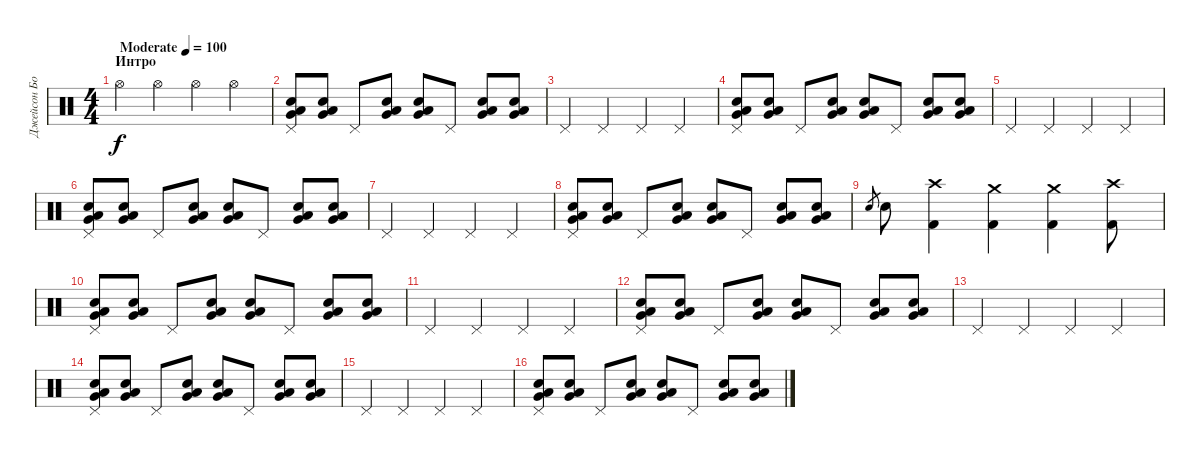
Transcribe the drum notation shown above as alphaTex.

\track ("Джейсон Бонэм" "Джейсон Бо") {instrument percussion}
\staff {score}
\articulation defaults
\ts (4 4)
\section ("" "Интро")
\tempo (100 "Moderate")
\clef neutral
\ks c "Hi-Hat (open)".4{dy f} "Hi-Hat (open)".4 "Hi-Hat (open)".4 "Hi-Hat (open)".4
|
("Very Low Tom (hit)" "Low Floor Tom (hit)" "Snare (hit) 2" "Pedal Hi-Hat (hit)").8 ("Very Low Tom (hit)" "Low Floor Tom (hit)" "Snare (hit) 2").8 "Pedal Hi-Hat (hit)".8 ("Very Low Tom (hit)" "Low Floor Tom (hit)" "Snare (hit) 2").8 ("Very Low Tom (hit)" "Low Floor Tom (hit)" "Snare (hit) 2").8 "Pedal Hi-Hat (hit)".8 ("Very Low Tom (hit)" "Low Floor Tom (hit)" "Snare (hit) 2").8 ("Very Low Tom (hit)" "Low Floor Tom (hit)" "Snare (hit) 2").8 |
"Pedal Hi-Hat (hit)".4 "Pedal Hi-Hat (hit)".4 "Pedal Hi-Hat (hit)".4 "Pedal Hi-Hat (hit)".4 |
("Very Low Tom (hit)" "Low Floor Tom (hit)" "Snare (hit) 2" "Pedal Hi-Hat (hit)").8 ("Very Low Tom (hit)" "Low Floor Tom (hit)" "Snare (hit) 2").8 "Pedal Hi-Hat (hit)".8 ("Very Low Tom (hit)" "Low Floor Tom (hit)" "Snare (hit) 2").8 ("Very Low Tom (hit)" "Low Floor Tom (hit)" "Snare (hit) 2").8 "Pedal Hi-Hat (hit)".8 ("Very Low Tom (hit)" "Low Floor Tom (hit)" "Snare (hit) 2").8 ("Very Low Tom (hit)" "Low Floor Tom (hit)" "Snare (hit) 2").8 |
"Pedal Hi-Hat (hit)".4 "Pedal Hi-Hat (hit)".4 "Pedal Hi-Hat (hit)".4 "Pedal Hi-Hat (hit)".4 |
("Very Low Tom (hit)" "Low Floor Tom (hit)" "Snare (hit) 2" "Pedal Hi-Hat (hit)").8 ("Very Low Tom (hit)" "Low Floor Tom (hit)" "Snare (hit) 2").8 "Pedal Hi-Hat (hit)".8 ("Very Low Tom (hit)" "Low Floor Tom (hit)" "Snare (hit) 2").8 ("Very Low Tom (hit)" "Low Floor Tom (hit)" "Snare (hit) 2").8 "Pedal Hi-Hat (hit)".8 ("Very Low Tom (hit)" "Low Floor Tom (hit)" "Snare (hit) 2").8 ("Very Low Tom (hit)" "Low Floor Tom (hit)" "Snare (hit) 2").8 |
"Pedal Hi-Hat (hit)".4 "Pedal Hi-Hat (hit)".4 "Pedal Hi-Hat (hit)".4 "Pedal Hi-Hat (hit)".4 |
("Very Low Tom (hit)" "Low Floor Tom (hit)" "Snare (hit) 2" "Pedal Hi-Hat (hit)").8 ("Very Low Tom (hit)" "Low Floor Tom (hit)" "Snare (hit) 2").8 "Pedal Hi-Hat (hit)".8 ("Very Low Tom (hit)" "Low Floor Tom (hit)" "Snare (hit) 2").8 ("Very Low Tom (hit)" "Low Floor Tom (hit)" "Snare (hit) 2").8 "Pedal Hi-Hat (hit)".8 ("Very Low Tom (hit)" "Low Floor Tom (hit)" "Snare (hit) 2").8 ("Very Low Tom (hit)" "Low Floor Tom (hit)" "Snare (hit) 2").8 |
"Snare (hit) 2".8{gr} "Snare (hit) 2".8 ("Crash high (hit)" "Kick (hit) 2").4 ("Crash medium (hit)" "Kick (hit) 2").4 ("Crash medium (hit)" "Kick (hit) 2").4 ("Crash high (hit)" "Kick (hit) 2").8 |
("Very Low Tom (hit)" "Low Floor Tom (hit)" "Snare (hit) 2" "Pedal Hi-Hat (hit)").8 ("Very Low Tom (hit)" "Low Floor Tom (hit)" "Snare (hit) 2").8 "Pedal Hi-Hat (hit)".8 ("Very Low Tom (hit)" "Low Floor Tom (hit)" "Snare (hit) 2").8 ("Very Low Tom (hit)" "Low Floor Tom (hit)" "Snare (hit) 2").8 "Pedal Hi-Hat (hit)".8 ("Very Low Tom (hit)" "Low Floor Tom (hit)" "Snare (hit) 2").8 ("Very Low Tom (hit)" "Low Floor Tom (hit)" "Snare (hit) 2").8 |
"Pedal Hi-Hat (hit)".4 "Pedal Hi-Hat (hit)".4 "Pedal Hi-Hat (hit)".4 "Pedal Hi-Hat (hit)".4 |
("Very Low Tom (hit)" "Low Floor Tom (hit)" "Snare (hit) 2" "Pedal Hi-Hat (hit)").8 ("Very Low Tom (hit)" "Low Floor Tom (hit)" "Snare (hit) 2").8 "Pedal Hi-Hat (hit)".8 ("Very Low Tom (hit)" "Low Floor Tom (hit)" "Snare (hit) 2").8 ("Very Low Tom (hit)" "Low Floor Tom (hit)" "Snare (hit) 2").8 "Pedal Hi-Hat (hit)".8 ("Very Low Tom (hit)" "Low Floor Tom (hit)" "Snare (hit) 2").8 ("Very Low Tom (hit)" "Low Floor Tom (hit)" "Snare (hit) 2").8 |
"Pedal Hi-Hat (hit)".4 "Pedal Hi-Hat (hit)".4 "Pedal Hi-Hat (hit)".4 "Pedal Hi-Hat (hit)".4 |
("Very Low Tom (hit)" "Low Floor Tom (hit)" "Snare (hit) 2" "Pedal Hi-Hat (hit)").8 ("Very Low Tom (hit)" "Low Floor Tom (hit)" "Snare (hit) 2").8 "Pedal Hi-Hat (hit)".8 ("Very Low Tom (hit)" "Low Floor Tom (hit)" "Snare (hit) 2").8 ("Very Low Tom (hit)" "Low Floor Tom (hit)" "Snare (hit) 2").8 "Pedal Hi-Hat (hit)".8 ("Very Low Tom (hit)" "Low Floor Tom (hit)" "Snare (hit) 2").8 ("Very Low Tom (hit)" "Low Floor Tom (hit)" "Snare (hit) 2").8 |
"Pedal Hi-Hat (hit)".4 "Pedal Hi-Hat (hit)".4 "Pedal Hi-Hat (hit)".4 "Pedal Hi-Hat (hit)".4 |
("Very Low Tom (hit)" "Low Floor Tom (hit)" "Snare (hit) 2" "Pedal Hi-Hat (hit)").8 ("Very Low Tom (hit)" "Low Floor Tom (hit)" "Snare (hit) 2").8 "Pedal Hi-Hat (hit)".8 ("Very Low Tom (hit)" "Low Floor Tom (hit)" "Snare (hit) 2").8 ("Very Low Tom (hit)" "Low Floor Tom (hit)" "Snare (hit) 2").8 "Pedal Hi-Hat (hit)".8 ("Very Low Tom (hit)" "Low Floor Tom (hit)" "Snare (hit) 2").8 ("Very Low Tom (hit)" "Low Floor Tom (hit)" "Snare (hit) 2").8
